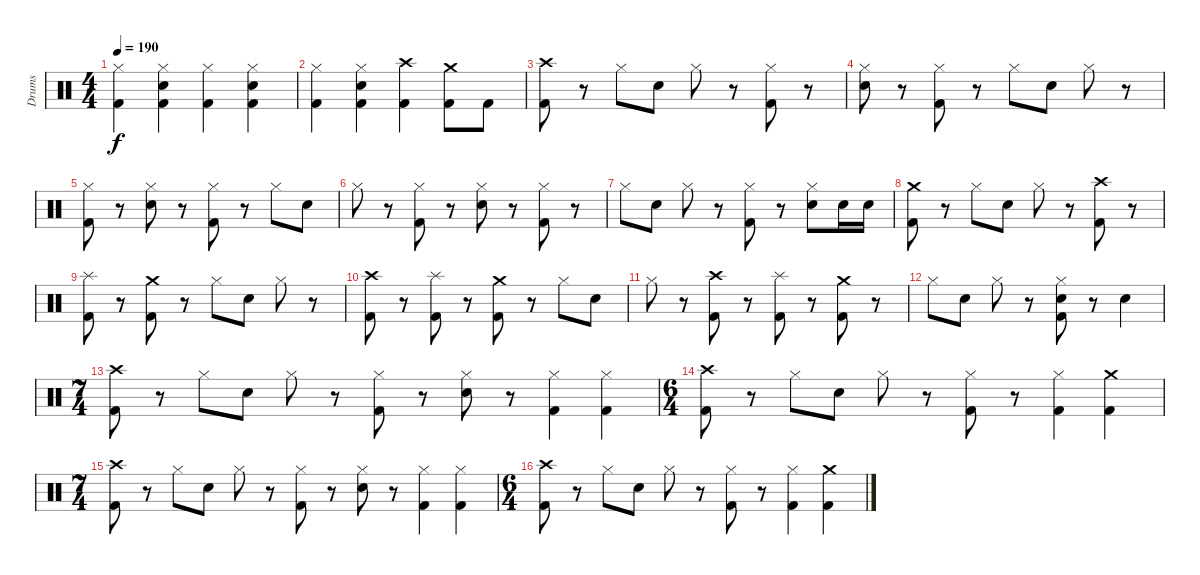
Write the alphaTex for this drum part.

\track ("Drums" "Drums") {instrument percussion}
\staff {score}
\articulation defaults
\ts (4 4)
\tempo 190
\clef neutral
\ks c
("Hi-Hat (closed)" "Kick (hit) 2").4{dy f} ("Hi-Hat (closed)" "Snare (hit) 2" "Kick (hit) 2").4 ("Hi-Hat (closed)" "Kick (hit) 2").4 ("Hi-Hat (closed)" "Snare (hit) 2" "Kick (hit) 2").4 |
("Hi-Hat (closed)" "Kick (hit) 2").4 ("Hi-Hat (closed)" "Snare (hit) 2" "Kick (hit) 2").4 ("Crash high (hit)" "Kick (hit) 2").4 ("Crash medium (hit)" "Kick (hit) 2").8 "Kick (hit) 2".8 |
("Crash high (hit)" "Kick (hit) 2").8 r.8 "Hi-Hat (closed)".8 "Snare (hit) 2".8 "Hi-Hat (closed)".8 r.8 ("Hi-Hat (closed)" "Kick (hit) 2").8 r.8 |
("Hi-Hat (closed)" "Snare (hit) 2").8 r.8 ("Hi-Hat (closed)" "Kick (hit) 2").8 r.8 "Hi-Hat (closed)".8 "Snare (hit) 2".8 "Hi-Hat (closed)".8 r.8 |
("Hi-Hat (closed)" "Kick (hit) 2").8 r.8 ("Hi-Hat (closed)" "Snare (hit) 2").8 r.8 ("Hi-Hat (closed)" "Kick (hit) 2").8 r.8 "Hi-Hat (closed)".8 "Snare (hit) 2".8 |
"Hi-Hat (closed)".8 r.8 ("Hi-Hat (closed)" "Kick (hit) 2").8 r.8 ("Hi-Hat (closed)" "Snare (hit) 2").8 r.8 ("Hi-Hat (closed)" "Kick (hit) 2").8 r.8 |
"Hi-Hat (closed)".8 "Snare (hit) 2".8 "Hi-Hat (closed)".8 r.8 ("Hi-Hat (closed)" "Kick (hit) 2").8 r.8 ("Hi-Hat (closed)" "Snare (hit) 2").8 "Snare (hit) 2".16 "Snare (hit) 2".16 |
("Crash medium (hit)" "Kick (hit) 2").8 r.8 "Hi-Hat (closed)".8 "Snare (hit) 2".8 "Hi-Hat (closed)".8 r.8 ("Crash high (hit)" "Kick (hit) 2").8 r.8 |
("Splash (hit)" "Kick (hit) 2").8 r.8 ("Crash medium (hit)" "Kick (hit) 2").8 r.8 "Hi-Hat (closed)".8 "Snare (hit) 2".8 "Hi-Hat (closed)".8 r.8 |
("Crash high (hit)" "Kick (hit) 2").8 r.8 ("Splash (hit)" "Kick (hit) 2").8 r.8 ("Crash medium (hit)" "Kick (hit) 2").8 r.8 "Hi-Hat (closed)".8 "Snare (hit) 2".8 |
"Hi-Hat (closed)".8 r.8 ("Crash high (hit)" "Kick (hit) 2").8 r.8 ("Splash (hit)" "Kick (hit) 2").8 r.8 ("Crash medium (hit)" "Kick (hit) 2").8 r.8 |
"Hi-Hat (closed)".8 "Snare (hit) 2".8 "Hi-Hat (closed)".8 r.8 ("Hi-Hat (closed)" "Snare (hit) 2" "Kick (hit) 2").8 r.8 "Snare (hit) 2".4 |
\ts (7 4)
("Crash high (hit)" "Kick (hit) 2").8 r.8 "Hi-Hat (closed)".8 "Snare (hit) 2".8 "Hi-Hat (closed)".8 r.8 ("Hi-Hat (closed)" "Kick (hit) 2").8 r.8 ("Hi-Hat (closed)" "Snare (hit) 2").8 r.8 ("Hi-Hat (closed)" "Kick (hit) 2").4 ("Hi-Hat (closed)" "Kick (hit) 2").4 |
\ts (6 4)
("Crash high (hit)" "Kick (hit) 2").8 r.8 "Hi-Hat (closed)".8 "Snare (hit) 2".8 "Hi-Hat (closed)".8 r.8 ("Hi-Hat (closed)" "Kick (hit) 2").8 r.8 ("Hi-Hat (closed)" "Kick (hit) 2").4 ("Crash medium (hit)" "Kick (hit) 2").4 |
\ts (7 4)
("Crash high (hit)" "Kick (hit) 2").8 r.8 "Hi-Hat (closed)".8 "Snare (hit) 2".8 "Hi-Hat (closed)".8 r.8 ("Hi-Hat (closed)" "Kick (hit) 2").8 r.8 ("Hi-Hat (closed)" "Snare (hit) 2").8 r.8 ("Hi-Hat (closed)" "Kick (hit) 2").4 ("Hi-Hat (closed)" "Kick (hit) 2").4 |
\ts (6 4)
("Crash high (hit)" "Kick (hit) 2").8 r.8 "Hi-Hat (closed)".8 "Snare (hit) 2".8 "Hi-Hat (closed)".8 r.8 ("Hi-Hat (closed)" "Kick (hit) 2").8 r.8 ("Hi-Hat (closed)" "Kick (hit) 2").4 ("Crash medium (hit)" "Kick (hit) 2").4
